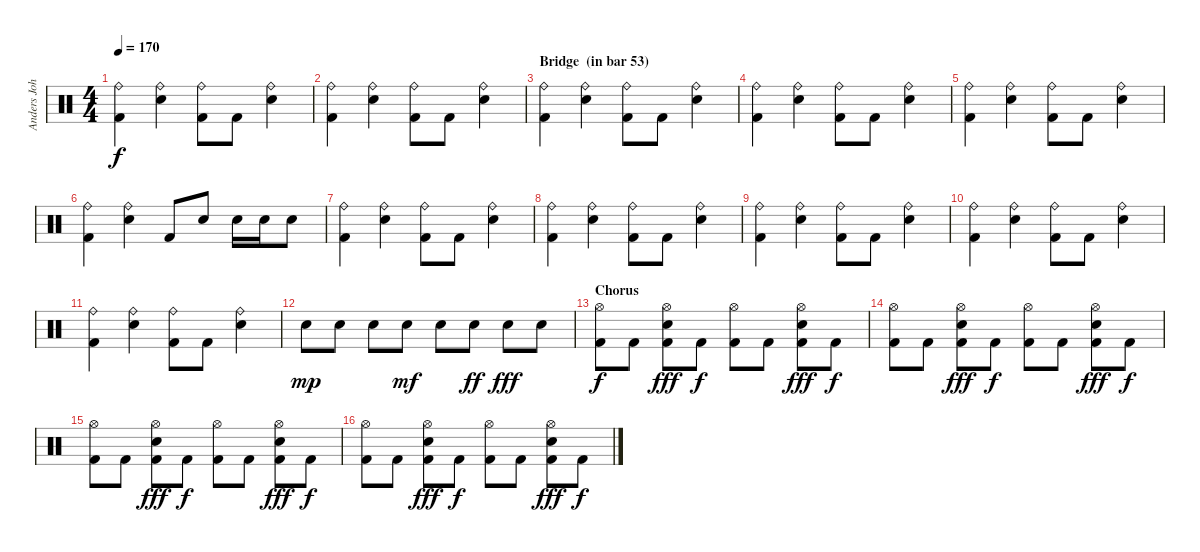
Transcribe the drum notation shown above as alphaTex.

\track ("Anders Johansson" "Anders Joh") {instrument percussion}
\staff {score}
\articulation defaults
\ts (4 4)
\tempo 170
\clef neutral
\ks c
("Ride (bell)" "Kick (hit) 2").4{dy f} ("Ride (bell)" "Snare (hit) 2").4 ("Ride (bell)" "Kick (hit) 2").8 "Kick (hit) 2".8 ("Ride (bell)" "Snare (hit) 2").4 |
("Ride (bell)" "Kick (hit) 2").4 ("Ride (bell)" "Snare (hit) 2").4 ("Ride (bell)" "Kick (hit) 2").8 "Kick (hit) 2".8 ("Ride (bell)" "Snare (hit) 2").4 |
\section ("" "Bridge  (in bar 53)")
("Ride (bell)" "Kick (hit) 2").4 ("Ride (bell)" "Snare (hit) 2").4 ("Ride (bell)" "Kick (hit) 2").8 "Kick (hit) 2".8 ("Ride (bell)" "Snare (hit) 2").4 |
("Ride (bell)" "Kick (hit) 2").4 ("Ride (bell)" "Snare (hit) 2").4 ("Ride (bell)" "Kick (hit) 2").8 "Kick (hit) 2".8 ("Ride (bell)" "Snare (hit) 2").4 |
("Ride (bell)" "Kick (hit) 2").4 ("Ride (bell)" "Snare (hit) 2").4 ("Ride (bell)" "Kick (hit) 2").8 "Kick (hit) 2".8 ("Ride (bell)" "Snare (hit) 2").4 |
("Ride (bell)" "Kick (hit) 2").4 ("Ride (bell)" "Snare (hit) 2").4 "Kick (hit) 2".8 "Snare (hit) 2".8 "Snare (hit) 2".16 "Snare (hit) 2".16 "Snare (hit) 2".8 |
("Ride (bell)" "Kick (hit) 2").4 ("Ride (bell)" "Snare (hit) 2").4 ("Ride (bell)" "Kick (hit) 2").8 "Kick (hit) 2".8 ("Ride (bell)" "Snare (hit) 2").4 |
("Ride (bell)" "Kick (hit) 2").4 ("Ride (bell)" "Snare (hit) 2").4 ("Ride (bell)" "Kick (hit) 2").8 "Kick (hit) 2".8 ("Ride (bell)" "Snare (hit) 2").4 |
("Ride (bell)" "Kick (hit) 2").4 ("Ride (bell)" "Snare (hit) 2").4 ("Ride (bell)" "Kick (hit) 2").8 "Kick (hit) 2".8 ("Ride (bell)" "Snare (hit) 2").4 |
("Ride (bell)" "Kick (hit) 2").4 ("Ride (bell)" "Snare (hit) 2").4 ("Ride (bell)" "Kick (hit) 2").8 "Kick (hit) 2".8 ("Ride (bell)" "Snare (hit) 2").4 |
("Ride (bell)" "Kick (hit) 2").4 ("Ride (bell)" "Snare (hit) 2").4 ("Ride (bell)" "Kick (hit) 2").8 "Kick (hit) 2".8 ("Ride (bell)" "Snare (hit) 2").4 |
"Snare (hit) 2".8{dy mp} "Snare (hit) 2".8 "Snare (hit) 2".8 "Snare (hit) 2".8{dy mf} "Snare (hit) 2".8 "Snare (hit) 2".8{dy ff} "Snare (hit) 2".8{dy fff} "Snare (hit) 2".8 |
\section ("" "Chorus")
("Hi-Hat (open)" "Kick (hit) 2").8{dy f} "Kick (hit) 2".8 ("Hi-Hat (open)" "Snare (hit) 2" "Kick (hit) 2").8{dy fff} "Kick (hit) 2".8{dy f} ("Hi-Hat (open)" "Kick (hit) 2").8 "Kick (hit) 2".8 ("Hi-Hat (open)" "Snare (hit) 2" "Kick (hit) 2").8{dy fff} "Kick (hit) 2".8{dy f} |
("Hi-Hat (open)" "Kick (hit) 2").8 "Kick (hit) 2".8 ("Hi-Hat (open)" "Snare (hit) 2" "Kick (hit) 2").8{dy fff} "Kick (hit) 2".8{dy f} ("Hi-Hat (open)" "Kick (hit) 2").8 "Kick (hit) 2".8 ("Hi-Hat (open)" "Snare (hit) 2" "Kick (hit) 2").8{dy fff} "Kick (hit) 2".8{dy f} |
("Hi-Hat (open)" "Kick (hit) 2").8 "Kick (hit) 2".8 ("Hi-Hat (open)" "Snare (hit) 2" "Kick (hit) 2").8{dy fff} "Kick (hit) 2".8{dy f} ("Hi-Hat (open)" "Kick (hit) 2").8 "Kick (hit) 2".8 ("Hi-Hat (open)" "Snare (hit) 2" "Kick (hit) 2").8{dy fff} "Kick (hit) 2".8{dy f} |
("Hi-Hat (open)" "Kick (hit) 2").8 "Kick (hit) 2".8 ("Hi-Hat (open)" "Snare (hit) 2" "Kick (hit) 2").8{dy fff} "Kick (hit) 2".8{dy f} ("Hi-Hat (open)" "Kick (hit) 2").8 "Kick (hit) 2".8 ("Hi-Hat (open)" "Snare (hit) 2" "Kick (hit) 2").8{dy fff} "Kick (hit) 2".8{dy f}
